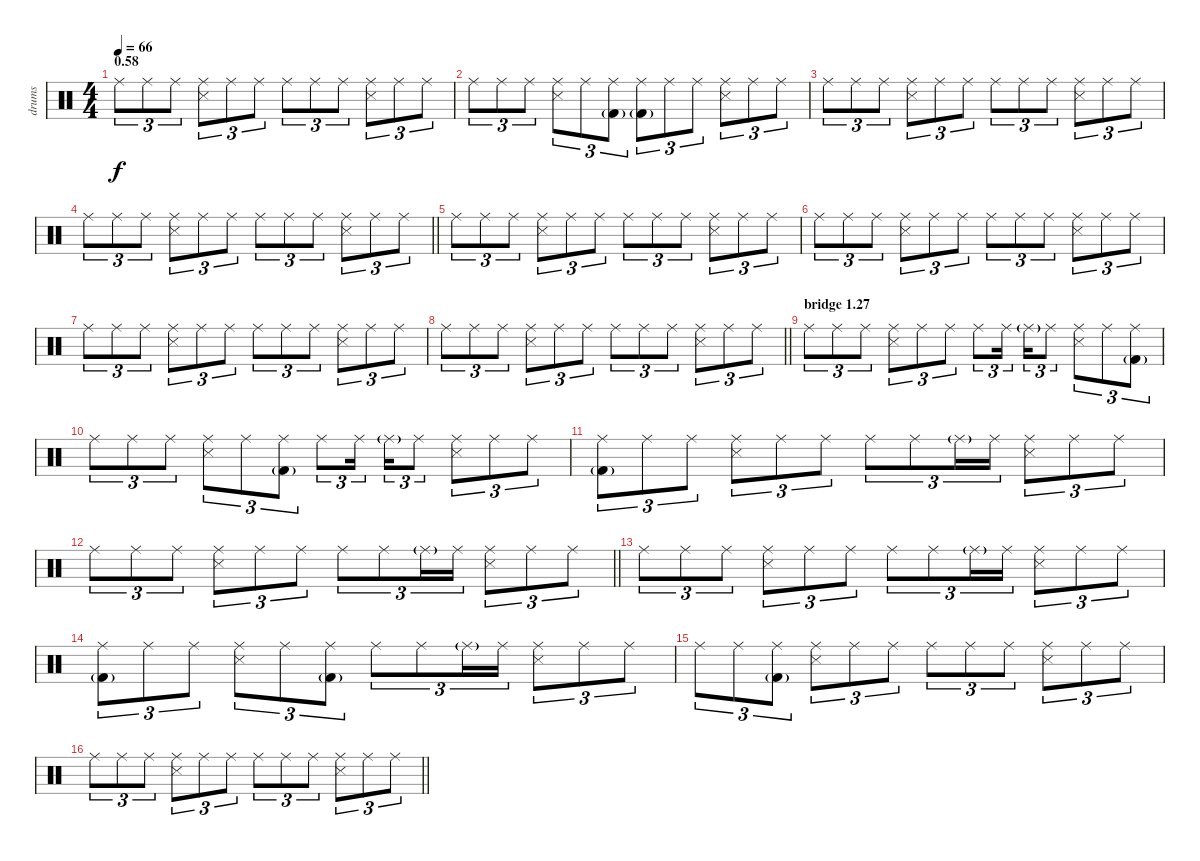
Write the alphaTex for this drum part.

\track ("drums" "drums") {instrument percussion}
\staff {score}
\articulation defaults
\ts (4 4)
\section ("" "0.58")
\tempo 66
\clef neutral
\ks c "Ride (middle)".8{tu (3 2) dy f} "Ride (middle)".8{tu (3 2)} "Ride (middle)".8{tu (3 2)}
("Ride (middle)" "Snare (side stick) 3").8{tu (3 2)} "Ride (middle)".8{tu (3 2)} "Ride (middle)".8{tu (3 2)} "Ride (middle)".8{tu (3 2)} "Ride (middle)".8{tu (3 2)} "Ride (middle)".8{tu (3 2)} ("Ride (middle)" "Snare (side stick) 3").8{tu (3 2)} "Ride (middle)".8{tu (3 2)} "Ride (middle)".8{tu (3 2)} |
"Ride (middle)".8{tu (3 2)} "Ride (middle)".8{tu (3 2)} "Ride (middle)".8{tu (3 2)} ("Ride (middle)" "Snare (side stick) 3").8{tu (3 2)} "Ride (middle)".8{tu (3 2)} ("Ride (middle)" "Kick (hit) 2"{g}).8{tu (3 2)} ("Ride (middle)" "Kick (hit) 2"{g}).8{tu (3 2)} "Ride (middle)".8{tu (3 2)} "Ride (middle)".8{tu (3 2)} ("Ride (middle)" "Snare (side stick) 3").8{tu (3 2)} "Ride (middle)".8{tu (3 2)} "Ride (middle)".8{tu (3 2)} |
"Ride (middle)".8{tu (3 2)} "Ride (middle)".8{tu (3 2)} "Ride (middle)".8{tu (3 2)} ("Ride (middle)" "Snare (side stick) 3").8{tu (3 2)} "Ride (middle)".8{tu (3 2)} "Ride (middle)".8{tu (3 2)} "Ride (middle)".8{tu (3 2)} "Ride (middle)".8{tu (3 2)} "Ride (middle)".8{tu (3 2)} ("Ride (middle)" "Snare (side stick) 3").8{tu (3 2)} "Ride (middle)".8{tu (3 2)} "Ride (middle)".8{tu (3 2)} |
\barLineRight lightlight "Ride (middle)".8{tu (3 2)} "Ride (middle)".8{tu (3 2)} "Ride (middle)".8{tu (3 2)}
("Ride (middle)" "Snare (side stick) 3").8{tu (3 2)} "Ride (middle)".8{tu (3 2)} "Ride (middle)".8{tu (3 2)} "Ride (middle)".8{tu (3 2)} "Ride (middle)".8{tu (3 2)} "Ride (middle)".8{tu (3 2)} ("Ride (middle)" "Snare (side stick) 3").8{tu (3 2)} "Ride (middle)".8{tu (3 2)} "Ride (middle)".8{tu (3 2)} |
"Ride (middle)".8{tu (3 2)} "Ride (middle)".8{tu (3 2)} "Ride (middle)".8{tu (3 2)} ("Ride (middle)" "Snare (side stick) 3").8{tu (3 2)} "Ride (middle)".8{tu (3 2)} "Ride (middle)".8{tu (3 2)} "Ride (middle)".8{tu (3 2)} "Ride (middle)".8{tu (3 2)} "Ride (middle)".8{tu (3 2)} ("Ride (middle)" "Snare (side stick) 3").8{tu (3 2)} "Ride (middle)".8{tu (3 2)} "Ride (middle)".8{tu (3 2)} |
"Ride (middle)".8{tu (3 2)} "Ride (middle)".8{tu (3 2)} "Ride (middle)".8{tu (3 2)} ("Ride (middle)" "Snare (side stick) 3").8{tu (3 2)} "Ride (middle)".8{tu (3 2)} "Ride (middle)".8{tu (3 2)} "Ride (middle)".8{tu (3 2)} "Ride (middle)".8{tu (3 2)} "Ride (middle)".8{tu (3 2)} ("Ride (middle)" "Snare (side stick) 3").8{tu (3 2)} "Ride (middle)".8{tu (3 2)} "Ride (middle)".8{tu (3 2)} |
"Ride (middle)".8{tu (3 2)} "Ride (middle)".8{tu (3 2)} "Ride (middle)".8{tu (3 2)} ("Ride (middle)" "Snare (side stick) 3").8{tu (3 2)} "Ride (middle)".8{tu (3 2)} "Ride (middle)".8{tu (3 2)} "Ride (middle)".8{tu (3 2)} "Ride (middle)".8{tu (3 2)} "Ride (middle)".8{tu (3 2)} ("Ride (middle)" "Snare (side stick) 3").8{tu (3 2)} "Ride (middle)".8{tu (3 2)} "Ride (middle)".8{tu (3 2)} |
\barLineRight lightlight "Ride (middle)".8{tu (3 2)} "Ride (middle)".8{tu (3 2)} "Ride (middle)".8{tu (3 2)}
("Ride (middle)" "Snare (side stick) 3").8{tu (3 2)} "Ride (middle)".8{tu (3 2)} "Ride (middle)".8{tu (3 2)} "Ride (middle)".8{tu (3 2)} "Ride (middle)".8{tu (3 2)} "Ride (middle)".8{tu (3 2)} ("Ride (middle)" "Snare (side stick) 3").8{tu (3 2)} "Ride (middle)".8{tu (3 2)} "Ride (middle)".8{tu (3 2)} |
\section ("" "bridge 1.27")
"Ride (middle)".8{tu (3 2)} "Ride (middle)".8{tu (3 2)} "Ride (middle)".8{tu (3 2)} ("Ride (middle)" "Snare (side stick) 3").8{tu (3 2)} "Ride (middle)".8{tu (3 2)} "Ride (middle)".8{tu (3 2)} "Ride (middle)".8{tu (3 2)} "Ride (middle)".16{tu (3 2) beam splitsecondary} "Ride (middle)"{g}.16{tu (3 2)} "Ride (middle)".8{tu (3 2)} ("Ride (middle)" "Snare (side stick) 3").8{tu (3 2)} "Ride (middle)".8{tu (3 2)} ("Ride (middle)" "Kick (hit) 2"{g}).8{tu (3 2)} |
"Ride (middle)".8{tu (3 2)} "Ride (middle)".8{tu (3 2)} "Ride (middle)".8{tu (3 2)} ("Ride (middle)" "Snare (side stick) 3").8{tu (3 2)} "Ride (middle)".8{tu (3 2)} ("Ride (middle)" "Kick (hit) 2"{g}).8{tu (3 2)} "Ride (middle)".8{tu (3 2)} "Ride (middle)".16{tu (3 2) beam splitsecondary} "Ride (middle)"{g}.16{tu (3 2)} "Ride (middle)".8{tu (3 2)} ("Ride (middle)" "Snare (side stick) 3").8{tu (3 2)} "Ride (middle)".8{tu (3 2)} "Ride (middle)".8{tu (3 2)} |
("Ride (middle)" "Kick (hit) 2"{g}).8{tu (3 2)} "Ride (middle)".8{tu (3 2)} "Ride (middle)".8{tu (3 2)} ("Ride (middle)" "Snare (side stick) 3").8{tu (3 2)} "Ride (middle)".8{tu (3 2)} "Ride (middle)".8{tu (3 2)} "Ride (middle)".8{tu (3 2)} "Ride (middle)".8{tu (3 2)} "Ride (middle)"{g}.16{tu (3 2)} "Ride (middle)".16{tu (3 2)} ("Ride (middle)" "Snare (side stick) 3").8{tu (3 2)} "Ride (middle)".8{tu (3 2)} "Ride (middle)".8{tu (3 2)} |
\barLineRight lightlight "Ride (middle)".8{tu (3 2)} "Ride (middle)".8{tu (3 2)} "Ride (middle)".8{tu (3 2)}
("Ride (middle)" "Snare (side stick) 3").8{tu (3 2)} "Ride (middle)".8{tu (3 2)} "Ride (middle)".8{tu (3 2)} "Ride (middle)".8{tu (3 2)} "Ride (middle)".8{tu (3 2)} "Ride (middle)"{g}.16{tu (3 2)} "Ride (middle)".16{tu (3 2)} ("Ride (middle)" "Snare (side stick) 3").8{tu (3 2)} "Ride (middle)".8{tu (3 2)} "Ride (middle)".8{tu (3 2)} |
"Ride (middle)".8{tu (3 2)} "Ride (middle)".8{tu (3 2)} "Ride (middle)".8{tu (3 2)} ("Ride (middle)" "Snare (side stick) 3").8{tu (3 2)} "Ride (middle)".8{tu (3 2)} "Ride (middle)".8{tu (3 2)} "Ride (middle)".8{tu (3 2)} "Ride (middle)".8{tu (3 2)} "Ride (middle)"{g}.16{tu (3 2)} "Ride (middle)".16{tu (3 2)} ("Ride (middle)" "Snare (side stick) 3").8{tu (3 2)} "Ride (middle)".8{tu (3 2)} "Ride (middle)".8{tu (3 2)} |
("Ride (middle)" "Kick (hit) 2"{g}).8{tu (3 2)} "Ride (middle)".8{tu (3 2)} "Ride (middle)".8{tu (3 2)} ("Ride (middle)" "Snare (side stick) 3").8{tu (3 2)} "Ride (middle)".8{tu (3 2)} ("Ride (middle)" "Kick (hit) 2"{g}).8{tu (3 2)} "Ride (middle)".8{tu (3 2)} "Ride (middle)".8{tu (3 2)} "Ride (middle)"{g}.16{tu (3 2)} "Ride (middle)".16{tu (3 2)} ("Ride (middle)" "Snare (side stick) 3").8{tu (3 2)} "Ride (middle)".8{tu (3 2)} "Ride (middle)".8{tu (3 2)} |
"Ride (middle)".8{tu (3 2)} "Ride (middle)".8{tu (3 2)} ("Ride (middle)" "Kick (hit) 2"{g}).8{tu (3 2)} ("Ride (middle)" "Snare (side stick) 3").8{tu (3 2)} "Ride (middle)".8{tu (3 2)} "Ride (middle)".8{tu (3 2)} "Ride (middle)".8{tu (3 2)} "Ride (middle)".8{tu (3 2)} "Ride (middle)".8{tu (3 2)} ("Ride (middle)" "Snare (side stick) 3").8{tu (3 2)} "Ride (middle)".8{tu (3 2)} "Ride (middle)".8{tu (3 2)} |
\barLineRight lightlight "Ride (middle)".8{tu (3 2)} "Ride (middle)".8{tu (3 2)} "Ride (middle)".8{tu (3 2)}
("Ride (middle)" "Snare (side stick) 3").8{tu (3 2)} "Ride (middle)".8{tu (3 2)} "Ride (middle)".8{tu (3 2)} "Ride (middle)".8{tu (3 2)} "Ride (middle)".8{tu (3 2)} "Ride (middle)".8{tu (3 2)} ("Ride (middle)" "Snare (side stick) 3").8{tu (3 2)} "Ride (middle)".8{tu (3 2)} "Ride (middle)".8{tu (3 2)}
